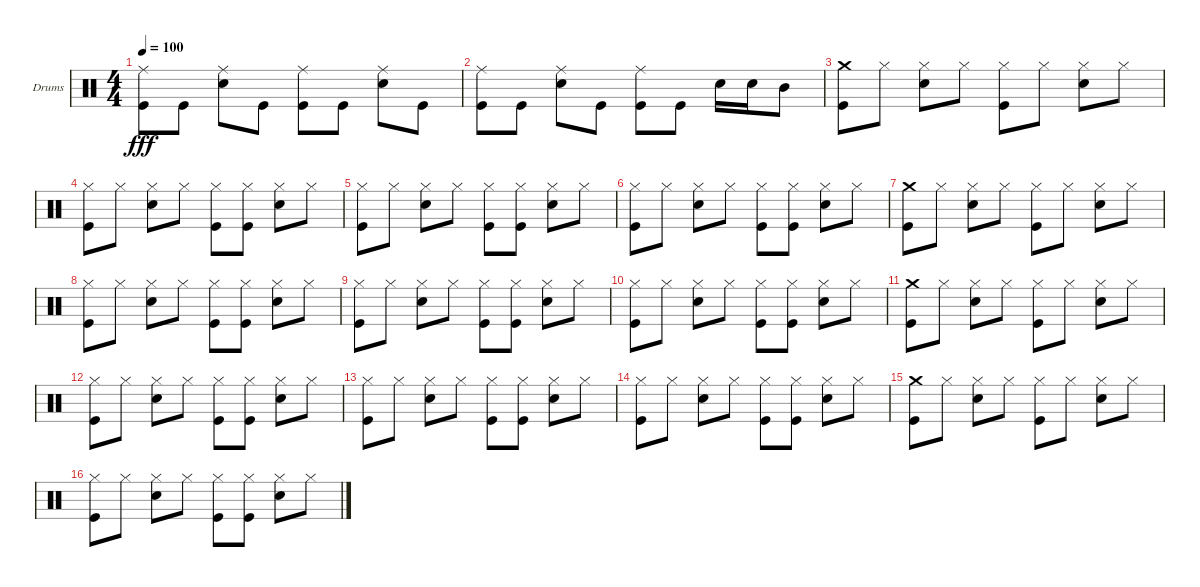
\defaultSystemsLayout 4
\bracketExtendMode groupsimilarinstruments
\firstSystemTrackNameOrientation horizontal
\otherSystemsTrackNameOrientation horizontal
\track ("Барабаны" "Drums") {instrument percussion}
\staff {score}
\articulation defaults
\ts (4 4)
\tempo 100
\clef neutral
\ks c
("Kick (hit)" "Ride (middle)").8{dy fff} "Kick (hit)".8 ("Snare (hit) 2" "Ride (middle)").8 "Kick (hit)".8 ("Kick (hit)" "Ride (middle)").8 "Kick (hit)".8 ("Snare (hit) 2" "Ride (middle)").8 "Kick (hit)".8 |
("Kick (hit)" "Ride (middle)").8 "Kick (hit)".8 ("Snare (hit) 2" "Ride (middle)").8 "Kick (hit)".8 ("Kick (hit)" "Ride (middle)").8 "Kick (hit)".8 "Snare (hit) 2".16 "Snare (hit) 2".16 "Mid Tom (hit)".8 |
("Crash medium (hit)" "Kick (hit)").8 "Hi-Hat (closed)".8 ("Hi-Hat (closed)" "Snare (hit) 2").8 "Hi-Hat (closed)".8 ("Hi-Hat (closed)" "Kick (hit)").8 "Hi-Hat (closed)".8 ("Hi-Hat (closed)" "Snare (hit) 2").8 "Hi-Hat (closed)".8 |
("Kick (hit)" "Hi-Hat (closed)").8 "Hi-Hat (closed)".8 ("Hi-Hat (closed)" "Snare (hit) 2").8 "Hi-Hat (closed)".8 ("Hi-Hat (closed)" "Kick (hit)").8 ("Hi-Hat (closed)" "Kick (hit)").8 ("Hi-Hat (closed)" "Snare (hit) 2").8 "Hi-Hat (closed)".8 |
("Kick (hit)" "Hi-Hat (closed)").8 "Hi-Hat (closed)".8 ("Hi-Hat (closed)" "Snare (hit) 2").8 "Hi-Hat (closed)".8 ("Hi-Hat (closed)" "Kick (hit)").8 ("Hi-Hat (closed)" "Kick (hit)").8 ("Hi-Hat (closed)" "Snare (hit) 2").8 "Hi-Hat (closed)".8 |
("Kick (hit)" "Hi-Hat (closed)").8 "Hi-Hat (closed)".8 ("Hi-Hat (closed)" "Snare (hit) 2").8 "Hi-Hat (closed)".8 ("Hi-Hat (closed)" "Kick (hit)").8 ("Hi-Hat (closed)" "Kick (hit)").8 ("Hi-Hat (closed)" "Snare (hit) 2").8 "Hi-Hat (closed)".8 |
("Crash medium (hit)" "Kick (hit)").8 "Hi-Hat (closed)".8 ("Hi-Hat (closed)" "Snare (hit) 2").8 "Hi-Hat (closed)".8 ("Hi-Hat (closed)" "Kick (hit)").8 "Hi-Hat (closed)".8 ("Hi-Hat (closed)" "Snare (hit) 2").8 "Hi-Hat (closed)".8 |
("Kick (hit)" "Hi-Hat (closed)").8 "Hi-Hat (closed)".8 ("Hi-Hat (closed)" "Snare (hit) 2").8 "Hi-Hat (closed)".8 ("Hi-Hat (closed)" "Kick (hit)").8 ("Hi-Hat (closed)" "Kick (hit)").8 ("Hi-Hat (closed)" "Snare (hit) 2").8 "Hi-Hat (closed)".8 |
("Kick (hit)" "Hi-Hat (closed)").8 "Hi-Hat (closed)".8 ("Hi-Hat (closed)" "Snare (hit) 2").8 "Hi-Hat (closed)".8 ("Hi-Hat (closed)" "Kick (hit)").8 ("Hi-Hat (closed)" "Kick (hit)").8 ("Hi-Hat (closed)" "Snare (hit) 2").8 "Hi-Hat (closed)".8 |
("Kick (hit)" "Hi-Hat (closed)").8 "Hi-Hat (closed)".8 ("Hi-Hat (closed)" "Snare (hit) 2").8 "Hi-Hat (closed)".8 ("Hi-Hat (closed)" "Kick (hit)").8 ("Hi-Hat (closed)" "Kick (hit)").8 ("Hi-Hat (closed)" "Snare (hit) 2").8 "Hi-Hat (closed)".8 |
("Crash medium (hit)" "Kick (hit)").8 "Hi-Hat (closed)".8 ("Hi-Hat (closed)" "Snare (hit) 2").8 "Hi-Hat (closed)".8 ("Hi-Hat (closed)" "Kick (hit)").8 "Hi-Hat (closed)".8 ("Hi-Hat (closed)" "Snare (hit) 2").8 "Hi-Hat (closed)".8 |
("Kick (hit)" "Hi-Hat (closed)").8 "Hi-Hat (closed)".8 ("Hi-Hat (closed)" "Snare (hit) 2").8 "Hi-Hat (closed)".8 ("Hi-Hat (closed)" "Kick (hit)").8 ("Hi-Hat (closed)" "Kick (hit)").8 ("Hi-Hat (closed)" "Snare (hit) 2").8 "Hi-Hat (closed)".8 |
("Kick (hit)" "Hi-Hat (closed)").8 "Hi-Hat (closed)".8 ("Hi-Hat (closed)" "Snare (hit) 2").8 "Hi-Hat (closed)".8 ("Hi-Hat (closed)" "Kick (hit)").8 ("Hi-Hat (closed)" "Kick (hit)").8 ("Hi-Hat (closed)" "Snare (hit) 2").8 "Hi-Hat (closed)".8 |
("Kick (hit)" "Hi-Hat (closed)").8 "Hi-Hat (closed)".8 ("Hi-Hat (closed)" "Snare (hit) 2").8 "Hi-Hat (closed)".8 ("Hi-Hat (closed)" "Kick (hit)").8 ("Hi-Hat (closed)" "Kick (hit)").8 ("Hi-Hat (closed)" "Snare (hit) 2").8 "Hi-Hat (closed)".8 |
("Crash medium (hit)" "Kick (hit)").8 "Hi-Hat (closed)".8 ("Hi-Hat (closed)" "Snare (hit) 2").8 "Hi-Hat (closed)".8 ("Hi-Hat (closed)" "Kick (hit)").8 "Hi-Hat (closed)".8 ("Hi-Hat (closed)" "Snare (hit) 2").8 "Hi-Hat (closed)".8 |
("Kick (hit)" "Hi-Hat (closed)").8 "Hi-Hat (closed)".8 ("Hi-Hat (closed)" "Snare (hit) 2").8 "Hi-Hat (closed)".8 ("Hi-Hat (closed)" "Kick (hit)").8 ("Hi-Hat (closed)" "Kick (hit)").8 ("Hi-Hat (closed)" "Snare (hit) 2").8 "Hi-Hat (closed)".8
